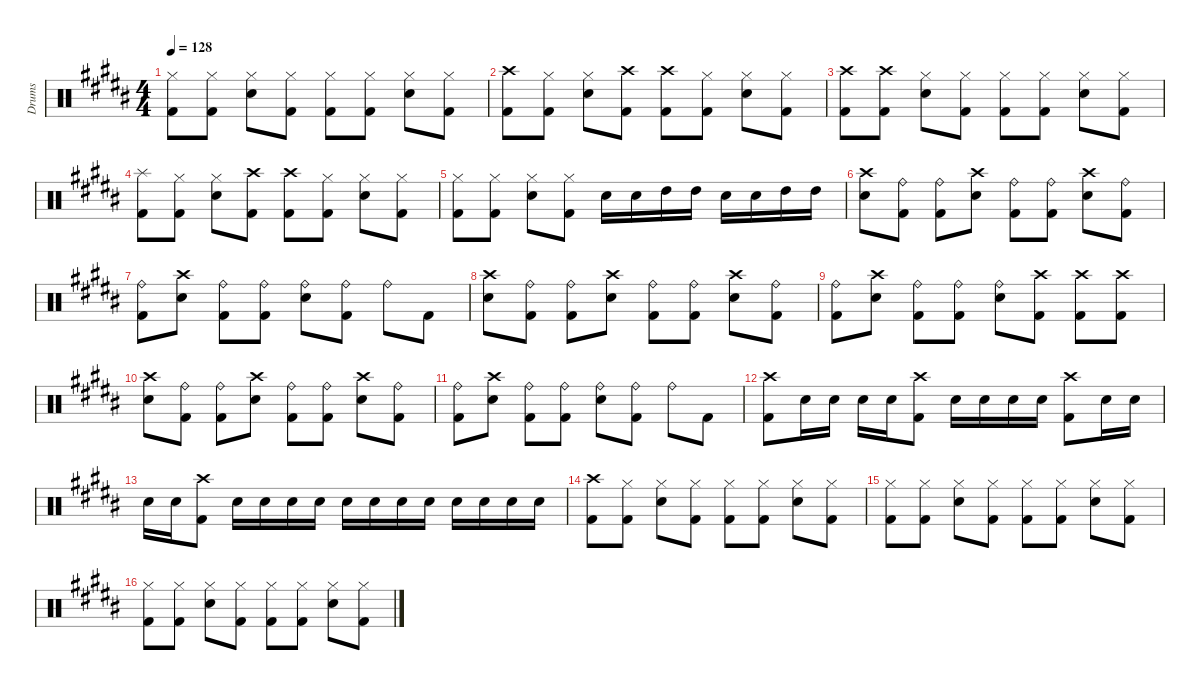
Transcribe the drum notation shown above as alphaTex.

\hideDynamics
\bracketExtendMode nobrackets
\otherSystemsTrackNameOrientation horizontal
\track ("Drumkit" "Drums") {instrument percussion}
\staff {score}
\articulation defaults
\ts (4 4)
\tempo 128
\clef neutral
\scale
0.333333
\ks b
("Kick (hit) 2"{acc bb} "Hi-Hat (closed)"{acc bb}).8{dy mf beam Down} ("Kick (hit) 2"{acc bb} "Hi-Hat (closed)"{acc bb}).8{beam Down} ("Snare (hit) 2"{acc bb} "Hi-Hat (closed)"{acc bb}).8{beam Down} ("Kick (hit) 2"{acc bb} "Hi-Hat (closed)"{acc bb}).8{beam Down} ("Kick (hit) 2"{acc bb} "Hi-Hat (closed)"{acc bb}).8{beam Down} ("Kick (hit) 2"{acc bb} "Hi-Hat (closed)"{acc bb}).8{beam Down} ("Snare (hit) 2"{acc bb} "Hi-Hat (closed)"{acc bb}).8{beam Down} ("Kick (hit) 2"{acc bb} "Hi-Hat (closed)"{acc bb}).8{beam Down} |
\scale
0.333333 ("Kick (hit) 2"{acc bb} "Crash high (hit)"{acc bb}).8{beam Down} ("Kick (hit) 2"{acc bb} "Hi-Hat (closed)"{acc bb}).8{beam Down} ("Snare (hit) 2"{acc bb} "Hi-Hat (closed)"{acc bb}).8{beam Down} ("Kick (hit) 2"{acc bb} "Crash high (hit)"{acc bb}).8{beam Down} ("Kick (hit) 2"{acc bb} "Crash high (hit)"{acc bb}).8{beam Down} ("Kick (hit) 2"{acc bb} "Hi-Hat (closed)"{acc bb}).8{beam Down} ("Snare (hit) 2"{acc bb} "Hi-Hat (closed)"{acc bb}).8{beam Down} ("Kick (hit) 2"{acc bb} "Hi-Hat (closed)"{acc bb}).8{beam Down} |
\scale
0.333333 ("Kick (hit) 2"{acc bb} "Crash high (hit)"{acc bb}).8{beam Down} ("Kick (hit) 2"{acc bb} "Crash high (hit)"{acc bb}).8{beam Down} ("Snare (hit) 2"{acc bb} "Hi-Hat (closed)"{acc bb}).8{beam Down} ("Kick (hit) 2"{acc bb} "Hi-Hat (closed)"{acc bb}).8{beam Down} ("Kick (hit) 2"{acc bb} "Hi-Hat (closed)"{acc bb}).8{beam Down} ("Kick (hit) 2"{acc bb} "Hi-Hat (closed)"{acc bb}).8{beam Down} ("Snare (hit) 2"{acc bb} "Hi-Hat (closed)"{acc bb}).8{beam Down} ("Kick (hit) 2"{acc bb} "Hi-Hat (closed)"{acc bb}).8{beam Down} |
\scale
0.333333 ("Kick (hit) 2"{acc bb} "Splash (hit)"{acc bb}).8{beam Down} ("Kick (hit) 2"{acc bb} "Hi-Hat (closed)"{acc bb}).8{beam Down} ("Snare (hit) 2"{acc bb} "Hi-Hat (closed)"{acc bb}).8{beam Down} ("Kick (hit) 2"{acc bb} "Crash high (hit)"{acc bb}).8{beam Down} ("Kick (hit) 2"{acc bb} "Crash high (hit)"{acc bb}).8{beam Down} ("Kick (hit) 2"{acc bb} "Hi-Hat (closed)"{acc bb}).8{beam Down} ("Snare (hit) 2"{acc bb} "Hi-Hat (closed)"{acc bb}).8{beam Down} ("Kick (hit) 2"{acc bb} "Hi-Hat (closed)"{acc bb}).8{beam Down} |
\scale
0.333333 ("Kick (hit) 2"{acc bb} "Hi-Hat (closed)"{acc bb}).8{beam Down} ("Kick (hit) 2"{acc bb} "Hi-Hat (closed)"{acc bb}).8{beam Down} ("Snare (hit) 2"{acc bb} "Hi-Hat (closed)"{acc bb}).8{beam Down} ("Kick (hit) 2"{acc bb} "Hi-Hat (closed)"{acc bb}).8{beam Down} "Snare (hit) 2"{acc bb}.16{beam Down} "Snare (hit) 2"{acc bb}.16{beam Down} "High Tom (hit)"{acc bb}.16{beam Down} "High Tom (hit)"{acc bb}.16{beam Down} "Snare (hit) 2"{acc bb}.16{beam Down} "Snare (hit) 2"{acc bb}.16{beam Down} "High Tom (hit)"{acc bb}.16{beam Down} "High Tom (hit)"{acc bb}.16{beam Down} |
\scale
0.333333 ("Snare (hit) 2"{acc bb} "Crash high (hit)"{acc bb}).8{beam Down} ("Ride (bell)"{acc bb} "Kick (hit) 2"{acc bb}).8{beam Down} ("Ride (bell)"{acc bb} "Kick (hit) 2"{acc bb}).8{beam Down} ("Snare (hit) 2"{acc bb} "Crash high (hit)"{acc bb}).8{beam Down} ("Ride (bell)"{acc bb} "Kick (hit) 2"{acc bb}).8{beam Down} ("Ride (bell)"{acc bb} "Kick (hit) 2"{acc bb}).8{beam Down} ("Snare (hit) 2"{acc bb} "Crash high (hit)"{acc bb}).8{beam Down} ("Ride (bell)"{acc bb} "Kick (hit) 2"{acc bb}).8{beam Down} |
\scale
0.333333 ("Kick (hit) 2"{acc bb} "Ride (bell)"{acc bb}).8{beam Down} ("Snare (hit) 2"{acc bb} "Crash high (hit)"{acc bb}).8{beam Down} ("Kick (hit) 2"{acc bb} "Ride (bell)"{acc bb}).8{beam Down} ("Kick (hit) 2"{acc bb} "Ride (bell)"{acc bb}).8{beam Down} ("Snare (hit) 2"{acc bb} "Ride (bell)"{acc bb}).8{beam Down} ("Kick (hit) 2"{acc bb} "Ride (bell)"{acc bb}).8{beam Down} "Ride (bell)"{acc bb}.8{beam Down} "Kick (hit) 2"{acc bb}.8{beam Down} |
\scale
0.333333 ("Snare (hit) 2"{acc bb} "Crash high (hit)"{acc bb}).8{beam Down} ("Ride (bell)"{acc bb} "Kick (hit) 2"{acc bb}).8{beam Down} ("Ride (bell)"{acc bb} "Kick (hit) 2"{acc bb}).8{beam Down} ("Snare (hit) 2"{acc bb} "Crash high (hit)"{acc bb}).8{beam Down} ("Ride (bell)"{acc bb} "Kick (hit) 2"{acc bb}).8{beam Down} ("Ride (bell)"{acc bb} "Kick (hit) 2"{acc bb}).8{beam Down} ("Snare (hit) 2"{acc bb} "Crash high (hit)"{acc bb}).8{beam Down} ("Ride (bell)"{acc bb} "Kick (hit) 2"{acc bb}).8{beam Down} |
\scale
0.333333 ("Kick (hit) 2"{acc bb} "Ride (bell)"{acc bb}).8{beam Down} ("Snare (hit) 2"{acc bb} "Crash high (hit)"{acc bb}).8{beam Down} ("Kick (hit) 2"{acc bb} "Ride (bell)"{acc bb}).8{beam Down} ("Kick (hit) 2"{acc bb} "Ride (bell)"{acc bb}).8{beam Down} ("Snare (hit) 2"{acc bb} "Ride (bell)"{acc bb}).8{beam Down} ("Kick (hit) 2"{acc bb} "Crash high (hit)"{acc bb}).8{beam Down} ("Kick (hit) 2"{acc bb} "Crash high (hit)"{acc bb}).8{beam Down} ("Kick (hit) 2"{acc bb} "Crash high (hit)"{acc bb}).8{beam Down} |
\scale
0.333333 ("Snare (hit) 2"{acc bb} "Crash high (hit)"{acc bb}).8{beam Down} ("Ride (bell)"{acc bb} "Kick (hit) 2"{acc bb}).8{beam Down} ("Ride (bell)"{acc bb} "Kick (hit) 2"{acc bb}).8{beam Down} ("Snare (hit) 2"{acc bb} "Crash high (hit)"{acc bb}).8{beam Down} ("Ride (bell)"{acc bb} "Kick (hit) 2"{acc bb}).8{beam Down} ("Ride (bell)"{acc bb} "Kick (hit) 2"{acc bb}).8{beam Down} ("Snare (hit) 2"{acc bb} "Crash high (hit)"{acc bb}).8{beam Down} ("Ride (bell)"{acc bb} "Kick (hit) 2"{acc bb}).8{beam Down} |
\scale
0.333333 ("Kick (hit) 2"{acc bb} "Ride (bell)"{acc bb}).8{beam Down} ("Snare (hit) 2"{acc bb} "Crash high (hit)"{acc bb}).8{beam Down} ("Kick (hit) 2"{acc bb} "Ride (bell)"{acc bb}).8{beam Down} ("Kick (hit) 2"{acc bb} "Ride (bell)"{acc bb}).8{beam Down} ("Snare (hit) 2"{acc bb} "Ride (bell)"{acc bb}).8{beam Down} ("Kick (hit) 2"{acc bb} "Ride (bell)"{acc bb}).8{beam Down} "Ride (bell)"{acc bb}.8{beam Down} "Kick (hit) 2"{acc bb}.8{beam Down} |
\scale
0.333333 ("Kick (hit) 2"{acc bb} "Crash high (hit)"{acc bb}).8{beam Down} "Snare (hit) 2"{acc bb}.16{beam Down} "Snare (hit) 2"{acc bb}.16{beam Down} "Snare (hit) 2"{acc bb}.16{beam Down} "Snare (hit) 2"{acc bb}.16{beam Down} ("Kick (hit) 2"{acc bb} "Crash high (hit)"{acc bb}).8{beam Down} "Snare (hit) 2"{acc bb}.16{beam Down} "Snare (hit) 2"{acc bb}.16{beam Down} "Snare (hit) 2"{acc bb}.16{beam Down} "Snare (hit) 2"{acc bb}.16{beam Down} ("Kick (hit) 2"{acc bb} "Crash high (hit)"{acc bb}).8{beam Down} "Snare (hit) 2"{acc bb}.16{beam Down} "Snare (hit) 2"{acc bb}.16{beam Down} |
\scale
0.333333 "Snare (hit) 2"{acc bb}.16{beam Down} "Snare (hit) 2"{acc bb}.16{beam Down} ("Kick (hit) 2"{acc bb} "Crash high (hit)"{acc bb}).8{beam Down} "Snare (hit) 2"{acc bb}.16{beam Down} "Snare (hit) 2"{acc bb}.16{beam Down} "Snare (hit) 2"{acc bb}.16{beam Down} "Snare (hit) 2"{acc bb}.16{beam Down} "Snare (hit) 2"{acc bb}.16{beam Down} "Snare (hit) 2"{acc bb}.16{beam Down} "Snare (hit) 2"{acc bb}.16{beam Down} "Snare (hit) 2"{acc bb}.16{beam Down} "Snare (hit) 2"{acc bb}.16{beam Down} "Snare (hit) 2"{acc bb}.16{beam Down} "Snare (hit) 2"{acc bb}.16{beam Down} "Snare (hit) 2"{acc bb}.16{beam Down} |
\scale
0.333333 ("Crash high (hit)"{acc bb} "Kick (hit) 2"{acc bb}).8{beam Down} ("Kick (hit) 2"{acc bb} "Hi-Hat (closed)"{acc bb}).8{beam Down} ("Snare (hit) 2"{acc bb} "Hi-Hat (closed)"{acc bb}).8{beam Down} ("Kick (hit) 2"{acc bb} "Hi-Hat (closed)"{acc bb}).8{beam Down} ("Kick (hit) 2"{acc bb} "Hi-Hat (closed)"{acc bb}).8{beam Down} ("Kick (hit) 2"{acc bb} "Hi-Hat (closed)"{acc bb}).8{beam Down} ("Snare (hit) 2"{acc bb} "Hi-Hat (closed)"{acc bb}).8{beam Down} ("Kick (hit) 2"{acc bb} "Hi-Hat (closed)"{acc bb}).8{beam Down} |
\scale
0.333333 ("Kick (hit) 2"{acc bb} "Hi-Hat (closed)"{acc bb}).8{beam Down} ("Kick (hit) 2"{acc bb} "Hi-Hat (closed)"{acc bb}).8{beam Down} ("Snare (hit) 2"{acc bb} "Hi-Hat (closed)"{acc bb}).8{beam Down} ("Kick (hit) 2"{acc bb} "Hi-Hat (closed)"{acc bb}).8{beam Down} ("Kick (hit) 2"{acc bb} "Hi-Hat (closed)"{acc bb}).8{beam Down} ("Kick (hit) 2"{acc bb} "Hi-Hat (closed)"{acc bb}).8{beam Down} ("Snare (hit) 2"{acc bb} "Hi-Hat (closed)"{acc bb}).8{beam Down} ("Kick (hit) 2"{acc bb} "Hi-Hat (closed)"{acc bb}).8{beam Down} |
\scale
0.333333 ("Kick (hit) 2"{acc bb} "Hi-Hat (closed)"{acc bb}).8{beam Down} ("Kick (hit) 2"{acc bb} "Hi-Hat (closed)"{acc bb}).8{beam Down} ("Snare (hit) 2"{acc bb} "Hi-Hat (closed)"{acc bb}).8{beam Down} ("Kick (hit) 2"{acc bb} "Hi-Hat (closed)"{acc bb}).8{beam Down} ("Kick (hit) 2"{acc bb} "Hi-Hat (closed)"{acc bb}).8{beam Down} ("Kick (hit) 2"{acc bb} "Hi-Hat (closed)"{acc bb}).8{beam Down} ("Snare (hit) 2"{acc bb} "Hi-Hat (closed)"{acc bb}).8{beam Down} ("Kick (hit) 2"{acc bb} "Hi-Hat (closed)"{acc bb}).8{beam Down}
